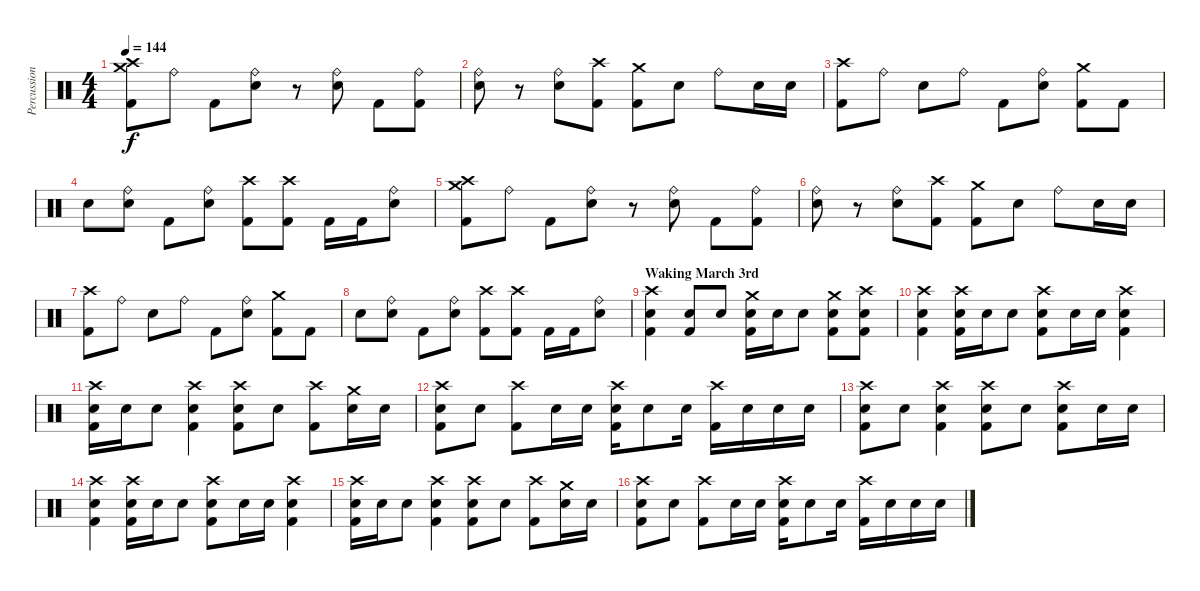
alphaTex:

\track ("Percussion" "Percussion") {instrument percussion}
\staff {score}
\articulation defaults
\ts (4 4)
\tempo 144
\clef neutral
\ks c
("Crash medium (hit)" "Crash high (hit)" "Kick (hit) 2").8{dy f} "Ride (bell)".8 "Kick (hit) 2".8 ("Ride (bell)" "Electric Snare (hit)").8 r.8 ("Ride (bell)" "Electric Snare (hit)").8 "Kick (hit) 2".8 ("Ride (bell)" "Kick (hit) 2").8 |
("Ride (bell)" "Electric Snare (hit)").8 r.8 ("Ride (bell)" "Electric Snare (hit)").8 ("Crash high (hit)" "Kick (hit) 2").8 ("Crash medium (hit)" "Kick (hit) 2").8 "Electric Snare (hit)".8 "Ride (bell)".8 "Electric Snare (hit)".16 "Electric Snare (hit)".16 |
("Crash high (hit)" "Kick (hit) 2").8 "Ride (bell)".8 "Electric Snare (hit)".8 "Ride (bell)".8 "Kick (hit) 2".8 ("Ride (bell)" "Electric Snare (hit)").8 ("Crash medium (hit)" "Kick (hit) 2").8 "Kick (hit) 2".8 |
"Electric Snare (hit)".8 ("Ride (bell)" "Electric Snare (hit)").8 "Kick (hit) 2".8 ("Ride (bell)" "Electric Snare (hit)").8 ("Crash high (hit)" "Kick (hit) 2").8 ("Crash high (hit)" "Kick (hit) 2").8 "Kick (hit) 2".16 "Kick (hit) 2".16 ("Ride (bell)" "Electric Snare (hit)").8 |
("Crash medium (hit)" "Crash high (hit)" "Kick (hit) 2").8 "Ride (bell)".8 "Kick (hit) 2".8 ("Ride (bell)" "Electric Snare (hit)").8 r.8 ("Ride (bell)" "Electric Snare (hit)").8 "Kick (hit) 2".8 ("Ride (bell)" "Kick (hit) 2").8 |
("Ride (bell)" "Electric Snare (hit)").8 r.8 ("Ride (bell)" "Electric Snare (hit)").8 ("Crash high (hit)" "Kick (hit) 2").8 ("Crash medium (hit)" "Kick (hit) 2").8 "Electric Snare (hit)".8 "Ride (bell)".8 "Electric Snare (hit)".16 "Electric Snare (hit)".16 |
("Crash high (hit)" "Kick (hit) 2").8 "Ride (bell)".8 "Electric Snare (hit)".8 "Ride (bell)".8 "Kick (hit) 2".8 ("Ride (bell)" "Electric Snare (hit)").8 ("Crash medium (hit)" "Kick (hit) 2").8 "Kick (hit) 2".8 |
"Electric Snare (hit)".8 ("Ride (bell)" "Electric Snare (hit)").8 "Kick (hit) 2".8 ("Ride (bell)" "Electric Snare (hit)").8 ("Crash high (hit)" "Kick (hit) 2").8 ("Crash high (hit)" "Kick (hit) 2").8 "Kick (hit) 2".16 "Kick (hit) 2".16 ("Ride (bell)" "Electric Snare (hit)").8 |
\section ("" "Waking March 3rd")
("Crash high (hit)" "Electric Snare (hit)" "Kick (hit) 2").4 ("Electric Snare (hit)" "Kick (hit) 2").8 "Electric Snare (hit)".8 ("Crash medium (hit)" "Electric Snare (hit)" "Kick (hit) 2").16 "Electric Snare (hit)".16 "Electric Snare (hit)".8 ("Crash medium (hit)" "Electric Snare (hit)" "Kick (hit) 2").8 ("Crash high (hit)" "Electric Snare (hit)" "Kick (hit) 2").8 |
("Crash high (hit)" "Electric Snare (hit)" "Kick (hit) 2").4 ("Crash high (hit)" "Electric Snare (hit)" "Kick (hit) 2").16 "Electric Snare (hit)".16 "Electric Snare (hit)".8 ("Crash high (hit)" "Electric Snare (hit)" "Kick (hit) 2").8 "Electric Snare (hit)".16 "Electric Snare (hit)".16 ("Crash high (hit)" "Electric Snare (hit)" "Kick (hit) 2").4 |
("Crash high (hit)" "Electric Snare (hit)" "Kick (hit) 2").16 "Electric Snare (hit)".16 "Electric Snare (hit)".8 ("Crash high (hit)" "Electric Snare (hit)" "Kick (hit) 2").4 ("Crash high (hit)" "Electric Snare (hit)" "Kick (hit) 2").8 "Electric Snare (hit)".8 ("Crash high (hit)" "Kick (hit) 2").8 ("Crash medium (hit)" "Electric Snare (hit)").16 "Electric Snare (hit)".16 |
("Crash high (hit)" "Electric Snare (hit)" "Kick (hit) 2").8 "Electric Snare (hit)".8 ("Crash high (hit)" "Kick (hit) 2").8 "Electric Snare (hit)".16 "Electric Snare (hit)".16 ("Crash high (hit)" "Electric Snare (hit)" "Kick (hit) 2").16 "Electric Snare (hit)".8 "Electric Snare (hit)".16 ("Crash high (hit)" "Kick (hit) 2").16 "Electric Snare (hit)".16 "Electric Snare (hit)".16 "Electric Snare (hit)".16 |
("Crash high (hit)" "Electric Snare (hit)" "Kick (hit) 2").8 "Electric Snare (hit)".8 ("Crash high (hit)" "Electric Snare (hit)" "Kick (hit) 2").4 ("Crash high (hit)" "Electric Snare (hit)" "Kick (hit) 2").8 "Electric Snare (hit)".8 ("Crash high (hit)" "Electric Snare (hit)" "Kick (hit) 2").8 "Electric Snare (hit)".16 "Electric Snare (hit)".16 |
("Crash high (hit)" "Electric Snare (hit)" "Kick (hit) 2").4 ("Crash high (hit)" "Electric Snare (hit)" "Kick (hit) 2").16 "Electric Snare (hit)".16 "Electric Snare (hit)".8 ("Crash high (hit)" "Electric Snare (hit)" "Kick (hit) 2").8 "Electric Snare (hit)".16 "Electric Snare (hit)".16 ("Crash high (hit)" "Electric Snare (hit)" "Kick (hit) 2").4 |
("Crash high (hit)" "Electric Snare (hit)" "Kick (hit) 2").16 "Electric Snare (hit)".16 "Electric Snare (hit)".8 ("Crash high (hit)" "Electric Snare (hit)" "Kick (hit) 2").4 ("Crash high (hit)" "Electric Snare (hit)" "Kick (hit) 2").8 "Electric Snare (hit)".8 ("Crash high (hit)" "Kick (hit) 2").8 ("Crash medium (hit)" "Electric Snare (hit)").16 "Electric Snare (hit)".16 |
("Crash high (hit)" "Electric Snare (hit)" "Kick (hit) 2").8 "Electric Snare (hit)".8 ("Crash high (hit)" "Kick (hit) 2").8 "Electric Snare (hit)".16 "Electric Snare (hit)".16 ("Crash high (hit)" "Electric Snare (hit)" "Kick (hit) 2").16 "Electric Snare (hit)".8 "Electric Snare (hit)".16 ("Crash high (hit)" "Kick (hit) 2").16 "Electric Snare (hit)".16 "Electric Snare (hit)".16 "Electric Snare (hit)".16
